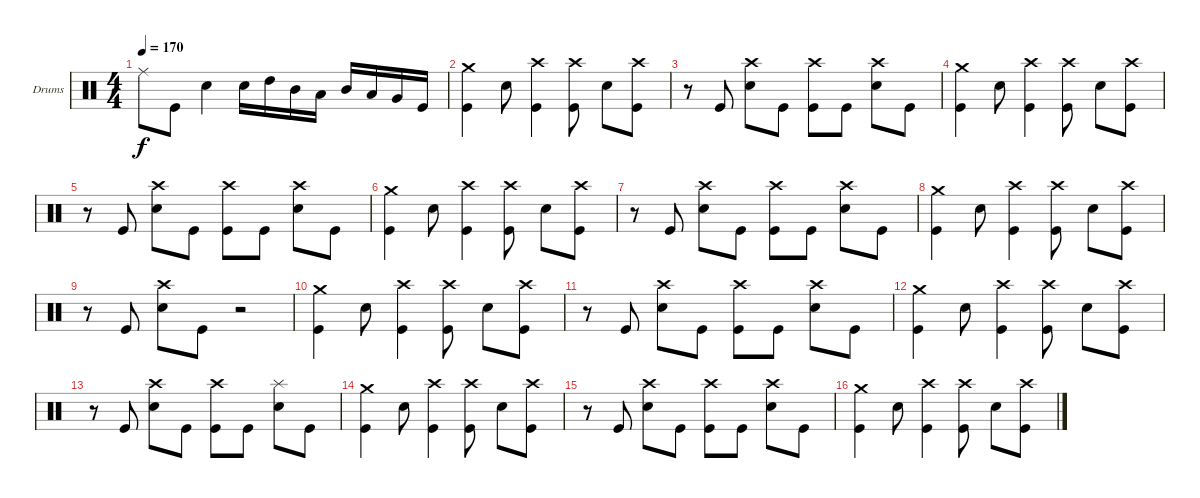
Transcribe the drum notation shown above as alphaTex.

\bracketExtendMode groupsimilarinstruments
\firstSystemTrackNameOrientation horizontal
\otherSystemsTrackNameOrientation horizontal
\track ("Drumkit" "Drums") {instrument percussion}
\staff {score}
\articulation defaults
\ts (4 4)
\tempo 170
\clef neutral
\ks c "Ride (middle)".8{dy f} "Kick (hit)".8 "Snare (hit) 2".4 "Snare (hit) 2".16 "High Tom (hit)".16 "Mid Tom (hit)".16 "Low Tom (hit)".16 "Mid Tom (hit)".16 "Low Tom (hit)".16 "Very Low Tom (hit)".16 "Kick (hit)".16
|
("Crash medium (hit)" "Kick (hit)").4 "Snare (hit) 2".8 ("Crash high (hit)" "Kick (hit)").4 ("Crash high (hit)" "Kick (hit)").8 "Snare (hit) 2".8 ("Crash high (hit)" "Kick (hit)").8 |
r.8 "Kick (hit)".8 ("Crash high (hit)" "Snare (hit) 2").8 "Kick (hit)".8 ("Crash high (hit)" "Kick (hit)").8 "Kick (hit)".8 ("Crash high (hit)" "Snare (hit) 2").8 "Kick (hit)".8 |
("Crash medium (hit)" "Kick (hit)").4 "Snare (hit) 2".8 ("Crash high (hit)" "Kick (hit)").4 ("Crash high (hit)" "Kick (hit)").8 "Snare (hit) 2".8 ("Crash high (hit)" "Kick (hit)").8 |
r.8 "Kick (hit)".8 ("Crash high (hit)" "Snare (hit) 2").8 "Kick (hit)".8 ("Crash high (hit)" "Kick (hit)").8 "Kick (hit)".8 ("Crash high (hit)" "Snare (hit) 2").8 "Kick (hit)".8 |
("Crash medium (hit)" "Kick (hit)").4 "Snare (hit) 2".8 ("Crash high (hit)" "Kick (hit)").4 ("Crash high (hit)" "Kick (hit)").8 "Snare (hit) 2".8 ("Crash high (hit)" "Kick (hit)").8 |
r.8 "Kick (hit)".8 ("Crash high (hit)" "Snare (hit) 2").8 "Kick (hit)".8 ("Crash high (hit)" "Kick (hit)").8 "Kick (hit)".8 ("Crash high (hit)" "Snare (hit) 2").8 "Kick (hit)".8 |
("Crash medium (hit)" "Kick (hit)").4 "Snare (hit) 2".8 ("Crash high (hit)" "Kick (hit)").4 ("Crash high (hit)" "Kick (hit)").8 "Snare (hit) 2".8 ("Crash high (hit)" "Kick (hit)").8 |
r.8 "Kick (hit)".8 ("Crash high (hit)" "Snare (hit) 2").8 "Kick (hit)".8 r.2 |
("Crash medium (hit)" "Kick (hit)").4 "Snare (hit) 2".8 ("Crash high (hit)" "Kick (hit)").4 ("Crash high (hit)" "Kick (hit)").8 "Snare (hit) 2".8 ("Crash high (hit)" "Kick (hit)").8 |
r.8 "Kick (hit)".8 ("Crash high (hit)" "Snare (hit) 2").8 "Kick (hit)".8 ("Crash high (hit)" "Kick (hit)").8 "Kick (hit)".8 ("Crash high (hit)" "Snare (hit) 2").8 "Kick (hit)".8 |
("Crash medium (hit)" "Kick (hit)").4 "Snare (hit) 2".8 ("Crash high (hit)" "Kick (hit)").4 ("Crash high (hit)" "Kick (hit)").8 "Snare (hit) 2".8 ("Crash high (hit)" "Kick (hit)").8 |
r.8 "Kick (hit)".8 ("Crash high (hit)" "Snare (hit) 2").8 "Kick (hit)".8 ("Crash high (hit)" "Kick (hit)").8 "Kick (hit)".8 ("Splash (hit)" "Snare (hit) 2").8 "Kick (hit)".8 |
("Crash medium (hit)" "Kick (hit)").4 "Snare (hit) 2".8 ("Crash high (hit)" "Kick (hit)").4 ("Crash high (hit)" "Kick (hit)").8 "Snare (hit) 2".8 ("Crash high (hit)" "Kick (hit)").8 |
r.8 "Kick (hit)".8 ("Crash high (hit)" "Snare (hit) 2").8 "Kick (hit)".8 ("Crash high (hit)" "Kick (hit)").8 "Kick (hit)".8 ("Crash high (hit)" "Snare (hit) 2").8 "Kick (hit)".8 |
("Crash medium (hit)" "Kick (hit)").4 "Snare (hit) 2".8 ("Crash high (hit)" "Kick (hit)").4 ("Crash high (hit)" "Kick (hit)").8 "Snare (hit) 2".8 ("Crash high (hit)" "Kick (hit)").8
